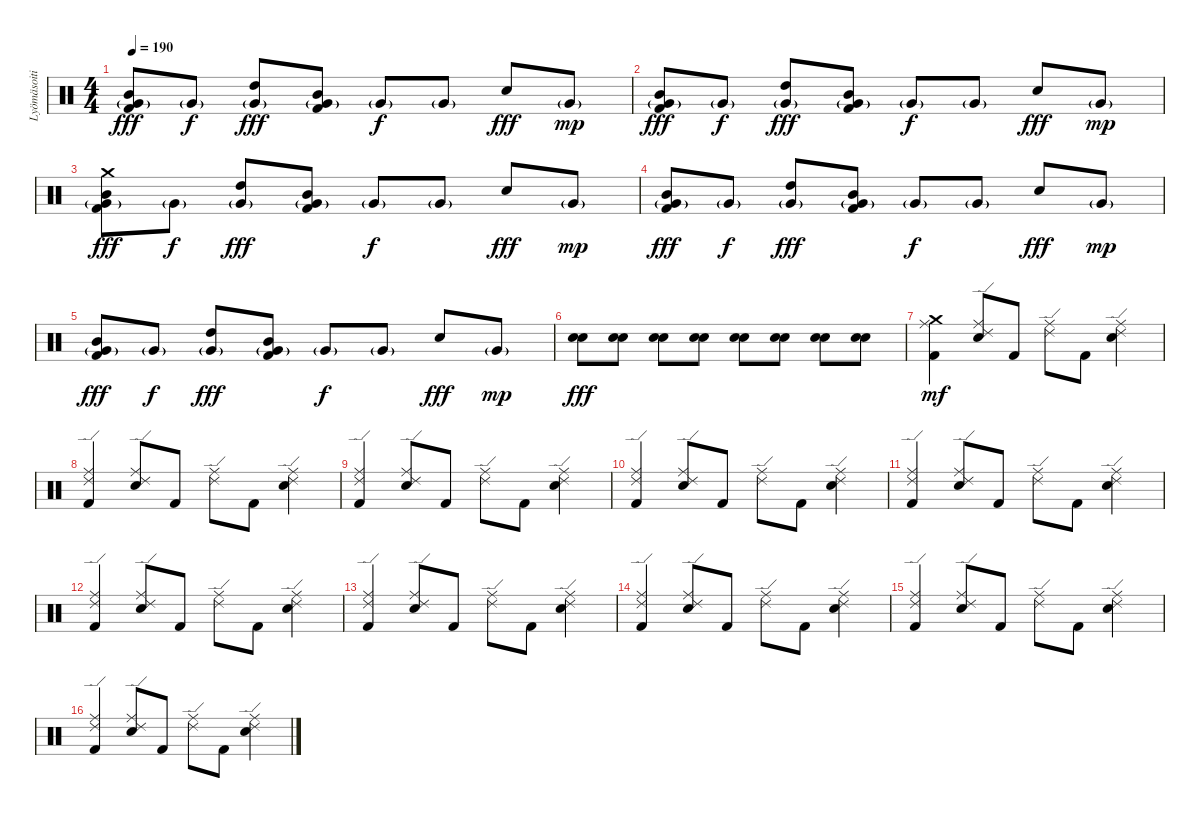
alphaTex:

\track ("Lyömäsoitin" "Lyömäsoiti") {instrument percussion}
\staff {score}
\articulation defaults
\ts (4 4)
\tempo 190
\clef neutral
\ks c
("Mid Tom (hit)" "Very Low Tom (hit)"{g} "Kick (hit) 2").8{dy fff} "Very Low Tom (hit)"{g}.8{dy f} ("High Tom (hit)" "Very Low Tom (hit)"{g}).8{dy fff} ("Mid Tom (hit)" "Very Low Tom (hit)"{g} "Kick (hit) 2").8 "Very Low Tom (hit)"{g}.8{dy f} "Very Low Tom (hit)"{g}.8 "Electric Snare (hit)".8{dy fff} "Very Low Tom (hit)"{g}.8{dy mp} |
("Mid Tom (hit)" "Very Low Tom (hit)"{g} "Kick (hit) 2").8{dy fff} "Very Low Tom (hit)"{g}.8{dy f} ("High Tom (hit)" "Very Low Tom (hit)"{g}).8{dy fff} ("Mid Tom (hit)" "Very Low Tom (hit)"{g} "Kick (hit) 2").8 "Very Low Tom (hit)"{g}.8{dy f} "Very Low Tom (hit)"{g}.8 "Electric Snare (hit)".8{dy fff} "Very Low Tom (hit)"{g}.8{dy mp} |
("Crash medium (hit)" "Mid Tom (hit)" "Very Low Tom (hit)"{g} "Kick (hit) 2").8{dy fff} "Very Low Tom (hit)"{g}.8{dy f} ("High Tom (hit)" "Very Low Tom (hit)"{g}).8{dy fff} ("Mid Tom (hit)" "Very Low Tom (hit)"{g} "Kick (hit) 2").8 "Very Low Tom (hit)"{g}.8{dy f} "Very Low Tom (hit)"{g}.8 "Electric Snare (hit)".8{dy fff} "Very Low Tom (hit)"{g}.8{dy mp} |
("Mid Tom (hit)" "Very Low Tom (hit)"{g} "Kick (hit) 2").8{dy fff} "Very Low Tom (hit)"{g}.8{dy f} ("High Tom (hit)" "Very Low Tom (hit)"{g}).8{dy fff} ("Mid Tom (hit)" "Very Low Tom (hit)"{g} "Kick (hit) 2").8 "Very Low Tom (hit)"{g}.8{dy f} "Very Low Tom (hit)"{g}.8 "Electric Snare (hit)".8{dy fff} "Very Low Tom (hit)"{g}.8{dy mp} |
("Mid Tom (hit)" "Very Low Tom (hit)"{g} "Kick (hit) 2").8{dy fff} "Very Low Tom (hit)"{g}.8{dy f} ("High Tom (hit)" "Very Low Tom (hit)"{g}).8{dy fff} ("Mid Tom (hit)" "Very Low Tom (hit)"{g} "Kick (hit) 2").8 "Very Low Tom (hit)"{g}.8{dy f} "Very Low Tom (hit)"{g}.8 "Electric Snare (hit)".8{dy fff} "Very Low Tom (hit)"{g}.8{dy mp volume 5} |
("Snare (hit) 2" "Electric Snare (hit)").8{dy fff volume 14} ("Snare (hit) 2" "Electric Snare (hit)").8 ("Snare (hit) 2" "Electric Snare (hit)").8 ("Snare (hit) 2" "Electric Snare (hit)").8 ("Snare (hit) 2" "Electric Snare (hit)").8 ("Snare (hit) 2" "Electric Snare (hit)").8 ("Snare (hit) 2" "Electric Snare (hit)").8 ("Snare (hit) 2" "Electric Snare (hit)").8 |
("Crash medium (hit)" "Ride (middle)" "Kick (hit) 2").4{dy mf} ("Ride (edge) 2" "Ride (middle)" "Snare (hit) 2").8 "Kick (hit) 2".8 ("Ride (edge) 2" "Ride (middle)").8 "Kick (hit) 2".8 ("Ride (edge) 2" "Ride (middle)" "Snare (hit) 2").4 |
("Ride (edge) 2" "Ride (middle)" "Kick (hit) 2").4 ("Ride (edge) 2" "Ride (middle)" "Snare (hit) 2").8 "Kick (hit) 2".8 ("Ride (edge) 2" "Ride (middle)").8 "Kick (hit) 2".8 ("Ride (edge) 2" "Ride (middle)" "Snare (hit) 2").4 |
("Ride (edge) 2" "Ride (middle)" "Kick (hit) 2").4 ("Ride (edge) 2" "Ride (middle)" "Snare (hit) 2").8 "Kick (hit) 2".8 ("Ride (edge) 2" "Ride (middle)").8 "Kick (hit) 2".8 ("Ride (edge) 2" "Ride (middle)" "Snare (hit) 2").4 |
("Ride (edge) 2" "Ride (middle)" "Kick (hit) 2").4 ("Ride (edge) 2" "Ride (middle)" "Snare (hit) 2").8 "Kick (hit) 2".8 ("Ride (edge) 2" "Ride (middle)").8 "Kick (hit) 2".8 ("Ride (edge) 2" "Ride (middle)" "Snare (hit) 2").4 |
("Ride (edge) 2" "Ride (middle)" "Kick (hit) 2").4 ("Ride (edge) 2" "Ride (middle)" "Snare (hit) 2").8 "Kick (hit) 2".8 ("Ride (edge) 2" "Ride (middle)").8 "Kick (hit) 2".8 ("Ride (edge) 2" "Ride (middle)" "Snare (hit) 2").4 |
("Ride (edge) 2" "Ride (middle)" "Kick (hit) 2").4 ("Ride (edge) 2" "Ride (middle)" "Snare (hit) 2").8 "Kick (hit) 2".8 ("Ride (edge) 2" "Ride (middle)").8 "Kick (hit) 2".8 ("Ride (edge) 2" "Ride (middle)" "Snare (hit) 2").4 |
("Ride (edge) 2" "Ride (middle)" "Kick (hit) 2").4 ("Ride (edge) 2" "Ride (middle)" "Snare (hit) 2").8 "Kick (hit) 2".8 ("Ride (edge) 2" "Ride (middle)").8 "Kick (hit) 2".8 ("Ride (edge) 2" "Ride (middle)" "Snare (hit) 2").4 |
("Ride (edge) 2" "Ride (middle)" "Kick (hit) 2").4 ("Ride (edge) 2" "Ride (middle)" "Snare (hit) 2").8 "Kick (hit) 2".8 ("Ride (edge) 2" "Ride (middle)").8 "Kick (hit) 2".8 ("Ride (edge) 2" "Ride (middle)" "Snare (hit) 2").4 |
("Ride (edge) 2" "Ride (middle)" "Kick (hit) 2").4 ("Ride (edge) 2" "Ride (middle)" "Snare (hit) 2").8 "Kick (hit) 2".8 ("Ride (edge) 2" "Ride (middle)").8 "Kick (hit) 2".8 ("Ride (edge) 2" "Ride (middle)" "Snare (hit) 2").4 |
("Ride (edge) 2" "Ride (middle)" "Kick (hit) 2").4 ("Ride (edge) 2" "Ride (middle)" "Snare (hit) 2").8 "Kick (hit) 2".8 ("Ride (edge) 2" "Ride (middle)").8 "Kick (hit) 2".8 ("Ride (edge) 2" "Ride (middle)" "Snare (hit) 2").4
